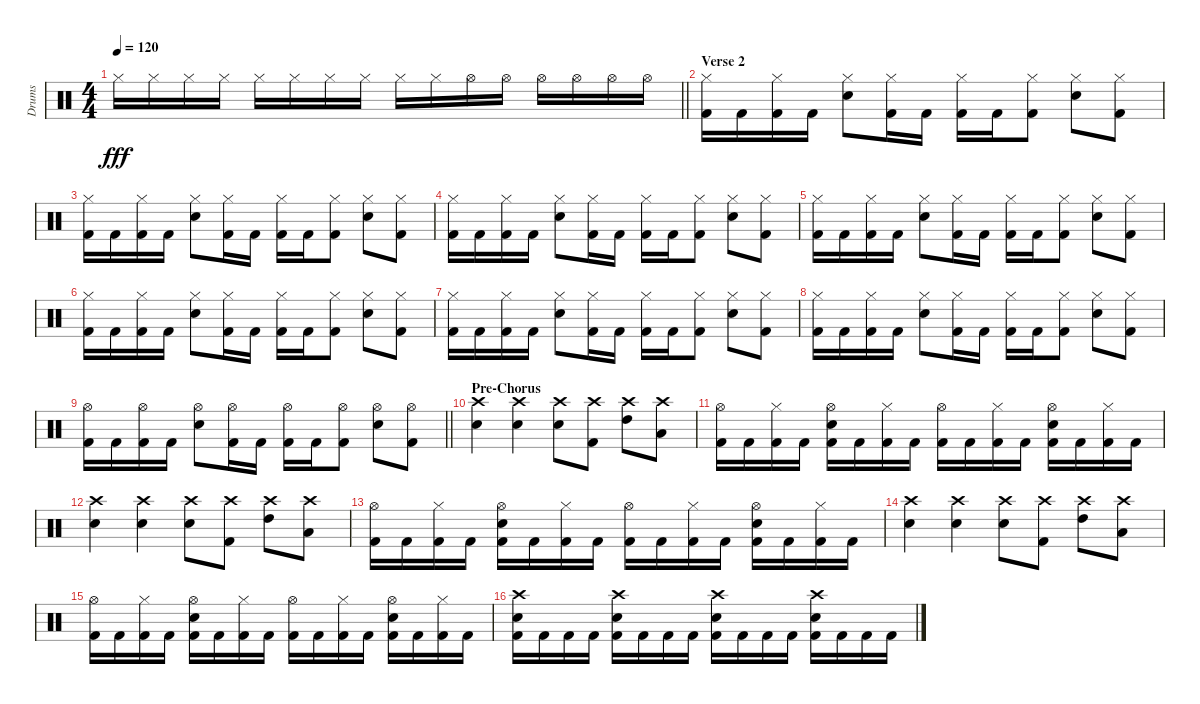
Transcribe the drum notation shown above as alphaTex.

\track ("Drums" "Drums") {instrument percussion}
\staff {score}
\articulation defaults
\ts (4 4)
\tempo 120
\clef neutral
\barLineRight lightlight
\ks c "Hi-Hat (closed)".16{dy fff} "Hi-Hat (closed)".16 "Hi-Hat (closed)".16 "Hi-Hat (closed)".16 "Hi-Hat (closed)".16 "Hi-Hat (closed)".16 "Hi-Hat (closed)".16 "Hi-Hat (closed)".16 "Hi-Hat (closed)".16 "Hi-Hat (closed)".16 "Hi-Hat (open)".16 "Hi-Hat (open)".16 "Hi-Hat (open)".16 "Hi-Hat (open)".16 "Hi-Hat (open)".16 "Hi-Hat (open)".16
|
\section ("" "Verse 2")
("Hi-Hat (closed)" "Kick (hit) 2").16 "Kick (hit) 2".16 ("Hi-Hat (closed)" "Kick (hit) 2").16 "Kick (hit) 2".16 ("Hi-Hat (closed)" "Electric Snare (hit)").8 ("Hi-Hat (closed)" "Kick (hit) 2").16 "Kick (hit) 2".16 ("Hi-Hat (closed)" "Kick (hit) 2").16 "Kick (hit) 2".16 ("Hi-Hat (closed)" "Kick (hit) 2").8 ("Hi-Hat (closed)" "Electric Snare (hit)").8 ("Hi-Hat (closed)" "Kick (hit) 2").8 |
("Hi-Hat (closed)" "Kick (hit) 2").16 "Kick (hit) 2".16 ("Hi-Hat (closed)" "Kick (hit) 2").16 "Kick (hit) 2".16 ("Hi-Hat (closed)" "Electric Snare (hit)").8 ("Hi-Hat (closed)" "Kick (hit) 2").16 "Kick (hit) 2".16 ("Hi-Hat (closed)" "Kick (hit) 2").16 "Kick (hit) 2".16 ("Hi-Hat (closed)" "Kick (hit) 2").8 ("Hi-Hat (closed)" "Electric Snare (hit)").8 ("Hi-Hat (closed)" "Kick (hit) 2").8 |
("Hi-Hat (closed)" "Kick (hit) 2").16 "Kick (hit) 2".16 ("Hi-Hat (closed)" "Kick (hit) 2").16 "Kick (hit) 2".16 ("Hi-Hat (closed)" "Electric Snare (hit)").8 ("Hi-Hat (closed)" "Kick (hit) 2").16 "Kick (hit) 2".16 ("Hi-Hat (closed)" "Kick (hit) 2").16 "Kick (hit) 2".16 ("Hi-Hat (closed)" "Kick (hit) 2").8 ("Hi-Hat (closed)" "Electric Snare (hit)").8 ("Hi-Hat (closed)" "Kick (hit) 2").8 |
("Hi-Hat (closed)" "Kick (hit) 2").16 "Kick (hit) 2".16 ("Hi-Hat (closed)" "Kick (hit) 2").16 "Kick (hit) 2".16 ("Hi-Hat (closed)" "Electric Snare (hit)").8 ("Hi-Hat (closed)" "Kick (hit) 2").16 "Kick (hit) 2".16 ("Hi-Hat (closed)" "Kick (hit) 2").16 "Kick (hit) 2".16 ("Hi-Hat (closed)" "Kick (hit) 2").8 ("Hi-Hat (closed)" "Electric Snare (hit)").8 ("Hi-Hat (closed)" "Kick (hit) 2").8 |
("Hi-Hat (closed)" "Kick (hit) 2").16 "Kick (hit) 2".16 ("Hi-Hat (closed)" "Kick (hit) 2").16 "Kick (hit) 2".16 ("Hi-Hat (closed)" "Electric Snare (hit)").8 ("Hi-Hat (closed)" "Kick (hit) 2").16 "Kick (hit) 2".16 ("Hi-Hat (closed)" "Kick (hit) 2").16 "Kick (hit) 2".16 ("Hi-Hat (closed)" "Kick (hit) 2").8 ("Hi-Hat (closed)" "Electric Snare (hit)").8 ("Hi-Hat (closed)" "Kick (hit) 2").8 |
("Hi-Hat (closed)" "Kick (hit) 2").16 "Kick (hit) 2".16 ("Hi-Hat (closed)" "Kick (hit) 2").16 "Kick (hit) 2".16 ("Hi-Hat (closed)" "Electric Snare (hit)").8 ("Hi-Hat (closed)" "Kick (hit) 2").16 "Kick (hit) 2".16 ("Hi-Hat (closed)" "Kick (hit) 2").16 "Kick (hit) 2".16 ("Hi-Hat (closed)" "Kick (hit) 2").8 ("Hi-Hat (closed)" "Electric Snare (hit)").8 ("Hi-Hat (closed)" "Kick (hit) 2").8 |
("Hi-Hat (closed)" "Kick (hit) 2").16 "Kick (hit) 2".16 ("Hi-Hat (closed)" "Kick (hit) 2").16 "Kick (hit) 2".16 ("Hi-Hat (closed)" "Electric Snare (hit)").8 ("Hi-Hat (closed)" "Kick (hit) 2").16 "Kick (hit) 2".16 ("Hi-Hat (closed)" "Kick (hit) 2").16 "Kick (hit) 2".16 ("Hi-Hat (closed)" "Kick (hit) 2").8 ("Hi-Hat (closed)" "Electric Snare (hit)").8 ("Hi-Hat (closed)" "Kick (hit) 2").8 |
\barLineRight lightlight
("Hi-Hat (open)" "Kick (hit) 2").16 "Kick (hit) 2".16 ("Hi-Hat (open)" "Kick (hit) 2").16 "Kick (hit) 2".16 ("Hi-Hat (open)" "Electric Snare (hit)").8 ("Hi-Hat (open)" "Kick (hit) 2").16 "Kick (hit) 2".16 ("Hi-Hat (open)" "Kick (hit) 2").16 "Kick (hit) 2".16 ("Hi-Hat (open)" "Kick (hit) 2").8 ("Hi-Hat (open)" "Electric Snare (hit)").8 ("Hi-Hat (open)" "Kick (hit) 2").8 |
\section ("" "Pre-Chorus")
("Crash high (hit)" "Electric Snare (hit)").4 ("Crash high (hit)" "Electric Snare (hit)").4 ("Crash high (hit)" "Electric Snare (hit)").8 ("Crash high (hit)" "Kick (hit) 2").8 ("Crash high (hit)" "High Tom (hit)").8 ("Crash high (hit)" "Low Tom (hit)").8 |
("Hi-Hat (open)" "Kick (hit) 2").16 "Kick (hit) 2".16 ("Hi-Hat (closed)" "Kick (hit) 2").16 "Kick (hit) 2".16 ("Hi-Hat (open)" "Electric Snare (hit)" "Kick (hit) 2").16 "Kick (hit) 2".16 ("Hi-Hat (closed)" "Kick (hit) 2").16 "Kick (hit) 2".16 ("Hi-Hat (open)" "Kick (hit) 2").16 "Kick (hit) 2".16 ("Hi-Hat (closed)" "Kick (hit) 2").16 "Kick (hit) 2".16 ("Hi-Hat (open)" "Electric Snare (hit)" "Kick (hit) 2").16 "Kick (hit) 2".16 ("Hi-Hat (closed)" "Kick (hit) 2").16 "Kick (hit) 2".16 |
("Crash high (hit)" "Electric Snare (hit)").4 ("Crash high (hit)" "Electric Snare (hit)").4 ("Crash high (hit)" "Electric Snare (hit)").8 ("Crash high (hit)" "Kick (hit) 2").8 ("Crash high (hit)" "High Tom (hit)").8 ("Crash high (hit)" "Low Tom (hit)").8 |
("Hi-Hat (open)" "Kick (hit) 2").16 "Kick (hit) 2".16 ("Hi-Hat (closed)" "Kick (hit) 2").16 "Kick (hit) 2".16 ("Hi-Hat (open)" "Electric Snare (hit)" "Kick (hit) 2").16 "Kick (hit) 2".16 ("Hi-Hat (closed)" "Kick (hit) 2").16 "Kick (hit) 2".16 ("Hi-Hat (open)" "Kick (hit) 2").16 "Kick (hit) 2".16 ("Hi-Hat (closed)" "Kick (hit) 2").16 "Kick (hit) 2".16 ("Hi-Hat (open)" "Electric Snare (hit)" "Kick (hit) 2").16 "Kick (hit) 2".16 ("Hi-Hat (closed)" "Kick (hit) 2").16 "Kick (hit) 2".16 |
("Crash high (hit)" "Electric Snare (hit)").4 ("Crash high (hit)" "Electric Snare (hit)").4 ("Crash high (hit)" "Electric Snare (hit)").8 ("Crash high (hit)" "Kick (hit) 2").8 ("Crash high (hit)" "High Tom (hit)").8 ("Crash high (hit)" "Low Tom (hit)").8 |
("Hi-Hat (open)" "Kick (hit) 2").16 "Kick (hit) 2".16 ("Hi-Hat (closed)" "Kick (hit) 2").16 "Kick (hit) 2".16 ("Hi-Hat (open)" "Electric Snare (hit)" "Kick (hit) 2").16 "Kick (hit) 2".16 ("Hi-Hat (closed)" "Kick (hit) 2").16 "Kick (hit) 2".16 ("Hi-Hat (open)" "Kick (hit) 2").16 "Kick (hit) 2".16 ("Hi-Hat (closed)" "Kick (hit) 2").16 "Kick (hit) 2".16 ("Hi-Hat (open)" "Electric Snare (hit)" "Kick (hit) 2").16 "Kick (hit) 2".16 ("Hi-Hat (closed)" "Kick (hit) 2").16 "Kick (hit) 2".16 |
("Crash high (hit)" "Electric Snare (hit)" "Kick (hit) 2").16 "Kick (hit) 2".16 "Kick (hit) 2".16 "Kick (hit) 2".16 ("Crash high (hit)" "Electric Snare (hit)" "Kick (hit) 2").16 "Kick (hit) 2".16 "Kick (hit) 2".16 "Kick (hit) 2".16 ("Crash high (hit)" "Electric Snare (hit)" "Kick (hit) 2").16 "Kick (hit) 2".16 "Kick (hit) 2".16 "Kick (hit) 2".16 ("Crash high (hit)" "Electric Snare (hit)" "Kick (hit) 2").16 "Kick (hit) 2".16 "Kick (hit) 2".16 "Kick (hit) 2".16
